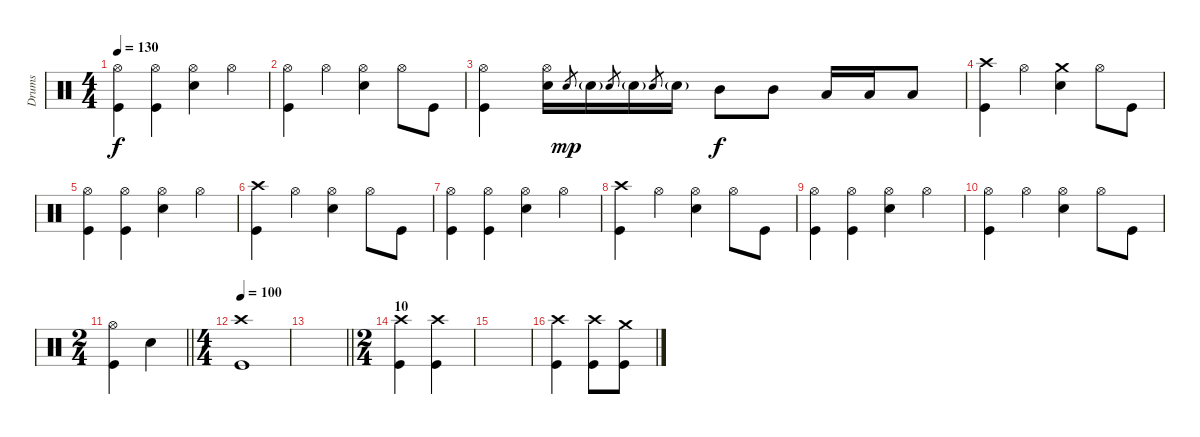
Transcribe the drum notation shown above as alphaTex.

\track ("Drums" "Drums") {instrument percussion}
\staff {score}
\articulation defaults
\ts (4 4)
\tempo 130
\clef neutral
\ks c
("Hi-Hat (open)" "Kick (hit)").4{dy f} ("Hi-Hat (open)" "Kick (hit)").4 ("Hi-Hat (open)" "Electric Snare (hit)").4 "Hi-Hat (open)".4 |
("Hi-Hat (open)" "Kick (hit)").4 "Hi-Hat (open)".4 ("Hi-Hat (open)" "Electric Snare (hit)").4 "Hi-Hat (open)".8 "Kick (hit)".8 |
("Hi-Hat (open)" "Kick (hit)").4 ("Hi-Hat (open)" "Electric Snare (hit)").16 "Electric Snare (hit)".8{gr dy mp} "Electric Snare (hit)"{g}.16 "Electric Snare (hit)".8{gr} "Electric Snare (hit)"{g}.16 "Electric Snare (hit)".8{gr} "Electric Snare (hit)"{g}.16 "Mid Tom (hit)".8{dy f} "Mid Tom (hit)".8 "Low Tom (hit)".16 "Low Tom (hit)".16 "Low Tom (hit)".8 |
("Crash high (hit)" "Kick (hit)").4 "Hi-Hat (open)".4 ("Crash medium (hit)" "Electric Snare (hit)").4 "Hi-Hat (open)".8 "Kick (hit)".8 |
("Hi-Hat (open)" "Kick (hit)").4 ("Hi-Hat (open)" "Kick (hit)").4 ("Hi-Hat (open)" "Electric Snare (hit)").4 "Hi-Hat (open)".4 |
("Crash high (hit)" "Kick (hit)").4 "Hi-Hat (open)".4 ("Hi-Hat (open)" "Electric Snare (hit)").4 "Hi-Hat (open)".8 "Kick (hit)".8 |
("Hi-Hat (open)" "Kick (hit)").4 ("Hi-Hat (open)" "Kick (hit)").4 ("Hi-Hat (open)" "Electric Snare (hit)").4 "Hi-Hat (open)".4 |
("Crash high (hit)" "Kick (hit)").4 "Hi-Hat (open)".4 ("Hi-Hat (open)" "Electric Snare (hit)").4 "Hi-Hat (open)".8 "Kick (hit)".8 |
("Hi-Hat (open)" "Kick (hit)").4 ("Hi-Hat (open)" "Kick (hit)").4 ("Hi-Hat (open)" "Electric Snare (hit)").4 "Hi-Hat (open)".4 |
("Hi-Hat (open)" "Kick (hit)").4 "Hi-Hat (open)".4 ("Hi-Hat (open)" "Electric Snare (hit)").4 "Hi-Hat (open)".8 "Kick (hit)".8 |
\ts (2 4)
\barLineRight lightlight
("Hi-Hat (open)" "Kick (hit)").4 "Electric Snare (hit)".4 |
\ts (4 4)
\section ("" "")
\tempo 100
("Crash high (hit)" "Kick (hit)").1 |
\barLineRight lightlight
|
\ts (2 4)
\section ("" "10")
("Crash high (hit)" "Kick (hit)").4 ("Crash high (hit)" "Kick (hit)").4 |
|
("Crash high (hit)" "Kick (hit)").4 ("Crash high (hit)" "Kick (hit)").8 ("Crash medium (hit)" "Kick (hit)").8
